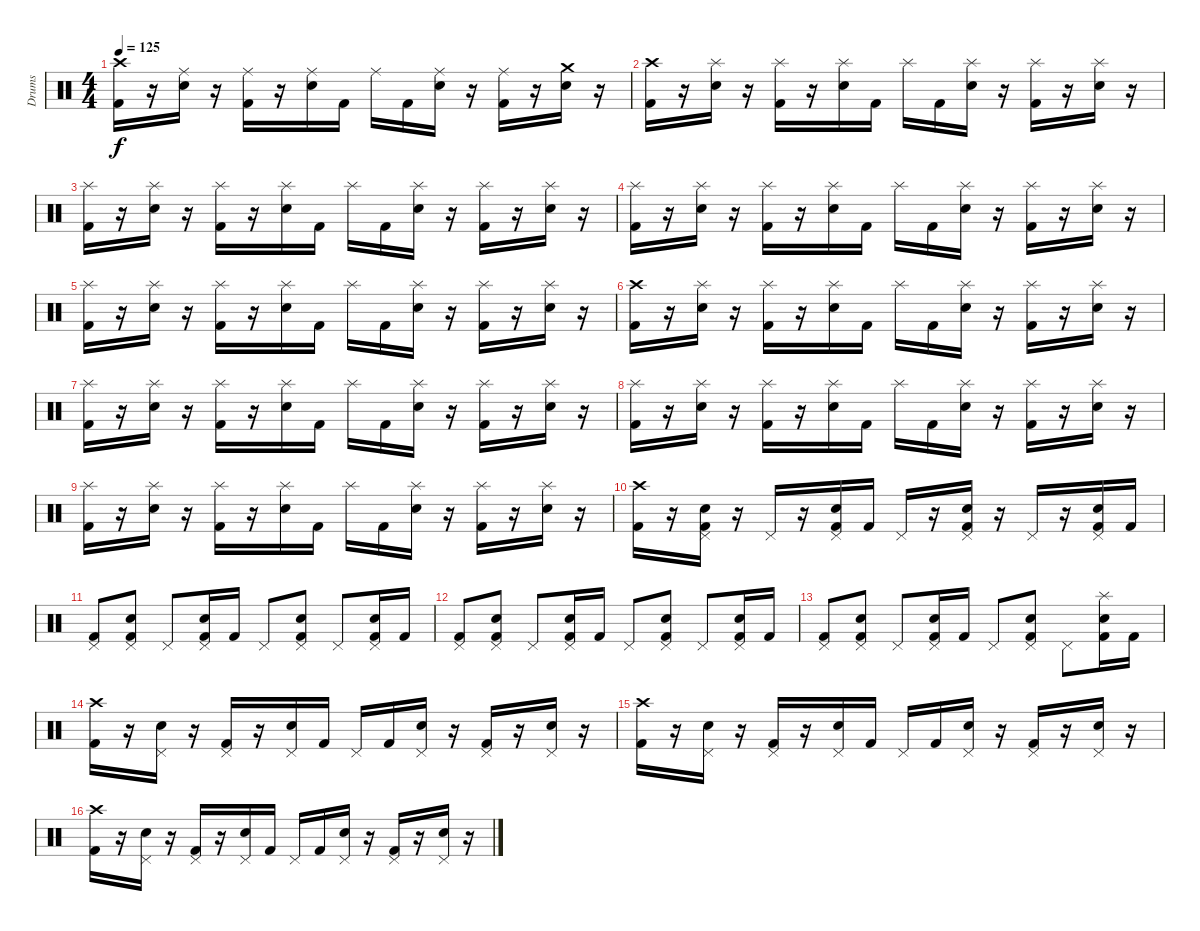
\track ("Drums" "Drums") {instrument percussion}
\staff {score}
\articulation defaults
\ts (4 4)
\tempo 125
\clef neutral
\ks c
("Crash high (hit)" "Kick (hit) 2").16{dy f} r.16 ("Ride (middle)" "Electric Snare (hit)").16 r.16 ("Ride (middle)" "Kick (hit) 2").16 r.16 ("Ride (middle)" "Electric Snare (hit)").16 "Kick (hit) 2".16 "Ride (middle)".16 "Kick (hit) 2".16 ("Ride (middle)" "Electric Snare (hit)").16 r.16 ("Ride (middle)" "Kick (hit) 2").16 r.16 ("Crash medium (hit)" "Electric Snare (hit)").16 r.16 |
("Crash high (hit)" "Kick (hit) 2").16{volume 14} r.16 ("Splash (hit)" "Electric Snare (hit)").16 r.16 ("Splash (hit)" "Kick (hit) 2").16 r.16 ("Splash (hit)" "Electric Snare (hit)").16 "Kick (hit) 2".16 "Splash (hit)".16 "Kick (hit) 2".16 ("Splash (hit)" "Electric Snare (hit)").16 r.16 ("Splash (hit)" "Kick (hit) 2").16 r.16 ("Splash (hit)" "Electric Snare (hit)").16 r.16 |
("Splash (hit)" "Kick (hit) 2").16{volume 14} r.16 ("Splash (hit)" "Electric Snare (hit)").16 r.16 ("Splash (hit)" "Kick (hit) 2").16 r.16 ("Splash (hit)" "Electric Snare (hit)").16 "Kick (hit) 2".16 "Splash (hit)".16 "Kick (hit) 2".16 ("Splash (hit)" "Electric Snare (hit)").16 r.16 ("Splash (hit)" "Kick (hit) 2").16 r.16 ("Splash (hit)" "Electric Snare (hit)").16 r.16 |
("Splash (hit)" "Kick (hit) 2").16{volume 14} r.16 ("Splash (hit)" "Electric Snare (hit)").16 r.16 ("Splash (hit)" "Kick (hit) 2").16 r.16 ("Splash (hit)" "Electric Snare (hit)").16 "Kick (hit) 2".16 "Splash (hit)".16 "Kick (hit) 2".16 ("Splash (hit)" "Electric Snare (hit)").16 r.16 ("Splash (hit)" "Kick (hit) 2").16 r.16 ("Splash (hit)" "Electric Snare (hit)").16 r.16 |
("Splash (hit)" "Kick (hit) 2").16{volume 14} r.16 ("Splash (hit)" "Electric Snare (hit)").16 r.16 ("Splash (hit)" "Kick (hit) 2").16 r.16 ("Splash (hit)" "Electric Snare (hit)").16 "Kick (hit) 2".16 "Splash (hit)".16 "Kick (hit) 2".16 ("Splash (hit)" "Electric Snare (hit)").16 r.16 ("Splash (hit)" "Kick (hit) 2").16 r.16 ("Splash (hit)" "Electric Snare (hit)").16 r.16 |
("Crash high (hit)" "Kick (hit) 2").16{volume 14} r.16 ("Splash (hit)" "Electric Snare (hit)").16 r.16 ("Splash (hit)" "Kick (hit) 2").16 r.16 ("Splash (hit)" "Electric Snare (hit)").16 "Kick (hit) 2".16 "Splash (hit)".16 "Kick (hit) 2".16 ("Splash (hit)" "Electric Snare (hit)").16 r.16 ("Splash (hit)" "Kick (hit) 2").16 r.16 ("Splash (hit)" "Electric Snare (hit)").16 r.16 |
("Splash (hit)" "Kick (hit) 2").16{volume 14} r.16 ("Splash (hit)" "Electric Snare (hit)").16 r.16 ("Splash (hit)" "Kick (hit) 2").16 r.16 ("Splash (hit)" "Electric Snare (hit)").16 "Kick (hit) 2".16 "Splash (hit)".16 "Kick (hit) 2".16 ("Splash (hit)" "Electric Snare (hit)").16 r.16 ("Splash (hit)" "Kick (hit) 2").16 r.16 ("Splash (hit)" "Electric Snare (hit)").16 r.16 |
("Splash (hit)" "Kick (hit) 2").16{volume 14} r.16 ("Splash (hit)" "Electric Snare (hit)").16 r.16 ("Splash (hit)" "Kick (hit) 2").16 r.16 ("Splash (hit)" "Electric Snare (hit)").16 "Kick (hit) 2".16 "Splash (hit)".16 "Kick (hit) 2".16 ("Splash (hit)" "Electric Snare (hit)").16 r.16 ("Splash (hit)" "Kick (hit) 2").16 r.16 ("Splash (hit)" "Electric Snare (hit)").16 r.16 |
("Splash (hit)" "Kick (hit) 2").16{volume 14} r.16 ("Splash (hit)" "Electric Snare (hit)").16 r.16 ("Splash (hit)" "Kick (hit) 2").16 r.16 ("Splash (hit)" "Electric Snare (hit)").16 "Kick (hit) 2".16 "Splash (hit)".16 "Kick (hit) 2".16 ("Splash (hit)" "Electric Snare (hit)").16 r.16 ("Splash (hit)" "Kick (hit) 2").16 r.16 ("Splash (hit)" "Electric Snare (hit)").16 r.16 |
("Crash high (hit)" "Kick (hit) 2").16 r.16 ("Pedal Hi-Hat (hit)" "Electric Snare (hit)" "Kick (hit) 2").16 r.16 "Pedal Hi-Hat (hit)".16 r.16 ("Pedal Hi-Hat (hit)" "Electric Snare (hit)" "Kick (hit) 2").16 "Kick (hit) 2".16 "Pedal Hi-Hat (hit)".16 r.16 ("Pedal Hi-Hat (hit)" "Electric Snare (hit)" "Kick (hit) 2").16 r.16 "Pedal Hi-Hat (hit)".16 r.16 ("Pedal Hi-Hat (hit)" "Electric Snare (hit)" "Kick (hit) 2").16 "Kick (hit) 2".16 |
("Pedal Hi-Hat (hit)" "Kick (hit) 2").8 ("Pedal Hi-Hat (hit)" "Electric Snare (hit)" "Kick (hit) 2").8 "Pedal Hi-Hat (hit)".8 ("Pedal Hi-Hat (hit)" "Electric Snare (hit)" "Kick (hit) 2").16 "Kick (hit) 2".16 "Pedal Hi-Hat (hit)".8 ("Pedal Hi-Hat (hit)" "Electric Snare (hit)" "Kick (hit) 2").8 "Pedal Hi-Hat (hit)".8 ("Pedal Hi-Hat (hit)" "Electric Snare (hit)" "Kick (hit) 2").16 "Kick (hit) 2".16 |
("Pedal Hi-Hat (hit)" "Kick (hit) 2").8 ("Pedal Hi-Hat (hit)" "Electric Snare (hit)" "Kick (hit) 2").8 "Pedal Hi-Hat (hit)".8 ("Pedal Hi-Hat (hit)" "Electric Snare (hit)" "Kick (hit) 2").16 "Kick (hit) 2".16 "Pedal Hi-Hat (hit)".8 ("Pedal Hi-Hat (hit)" "Electric Snare (hit)" "Kick (hit) 2").8 "Pedal Hi-Hat (hit)".8 ("Pedal Hi-Hat (hit)" "Electric Snare (hit)" "Kick (hit) 2").16 "Kick (hit) 2".16 |
("Pedal Hi-Hat (hit)" "Kick (hit) 2").8 ("Pedal Hi-Hat (hit)" "Electric Snare (hit)" "Kick (hit) 2").8 "Pedal Hi-Hat (hit)".8 ("Pedal Hi-Hat (hit)" "Electric Snare (hit)" "Kick (hit) 2").16 "Kick (hit) 2".16 "Pedal Hi-Hat (hit)".8 ("Pedal Hi-Hat (hit)" "Electric Snare (hit)" "Kick (hit) 2").8 "Pedal Hi-Hat (hit)".8 ("Splash (hit)" "Electric Snare (hit)" "Kick (hit) 2").16 "Kick (hit) 2".16 |
("Crash high (hit)" "Kick (hit) 2").16{volume 14} r.16 ("Pedal Hi-Hat (hit)" "Electric Snare (hit)").16 r.16 ("Pedal Hi-Hat (hit)" "Kick (hit) 2").16 r.16 ("Pedal Hi-Hat (hit)" "Electric Snare (hit)").16 "Kick (hit) 2".16 "Pedal Hi-Hat (hit)".16 "Kick (hit) 2".16 ("Pedal Hi-Hat (hit)" "Electric Snare (hit)").16 r.16 ("Pedal Hi-Hat (hit)" "Kick (hit) 2").16 r.16 ("Pedal Hi-Hat (hit)" "Electric Snare (hit)").16 r.16 |
("Crash high (hit)" "Kick (hit) 2").16{volume 14} r.16 ("Pedal Hi-Hat (hit)" "Electric Snare (hit)").16 r.16 ("Pedal Hi-Hat (hit)" "Kick (hit) 2").16 r.16 ("Pedal Hi-Hat (hit)" "Electric Snare (hit)").16 "Kick (hit) 2".16 "Pedal Hi-Hat (hit)".16 "Kick (hit) 2".16 ("Pedal Hi-Hat (hit)" "Electric Snare (hit)").16 r.16 ("Pedal Hi-Hat (hit)" "Kick (hit) 2").16 r.16 ("Pedal Hi-Hat (hit)" "Electric Snare (hit)").16 r.16 |
("Crash high (hit)" "Kick (hit) 2").16{volume 14} r.16 ("Pedal Hi-Hat (hit)" "Electric Snare (hit)").16 r.16 ("Pedal Hi-Hat (hit)" "Kick (hit) 2").16 r.16 ("Pedal Hi-Hat (hit)" "Electric Snare (hit)").16 "Kick (hit) 2".16 "Pedal Hi-Hat (hit)".16 "Kick (hit) 2".16 ("Pedal Hi-Hat (hit)" "Electric Snare (hit)").16 r.16 ("Pedal Hi-Hat (hit)" "Kick (hit) 2").16 r.16 ("Pedal Hi-Hat (hit)" "Electric Snare (hit)").16 r.16
